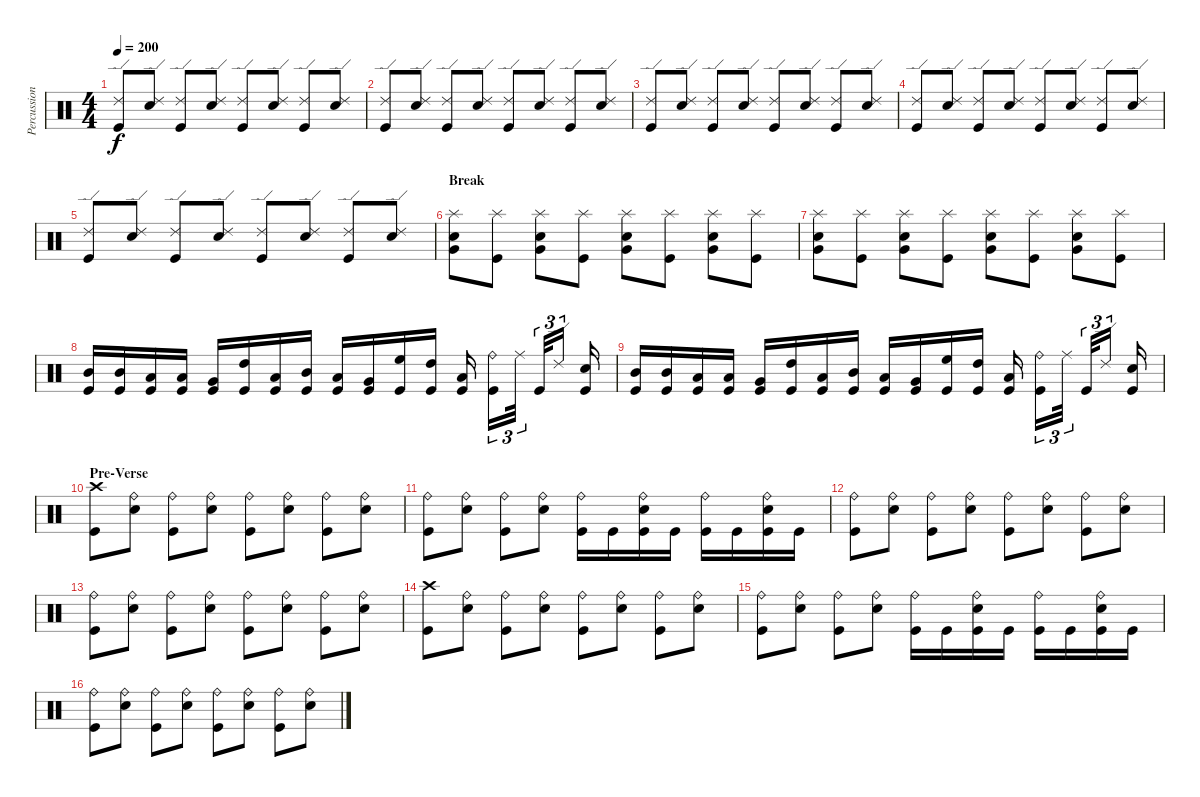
\track ("Percussion" "Percussion") {instrument percussion}
\staff {score}
\articulation defaults
\ts (4 4)
\tempo 200
\clef neutral
\ks c
("Ride (edge) 2" "Kick (hit)").8{dy f} ("Ride (edge) 2" "Electric Snare (hit)").8 ("Ride (edge) 2" "Kick (hit)").8 ("Ride (edge) 2" "Electric Snare (hit)").8 ("Ride (edge) 2" "Kick (hit)").8 ("Ride (edge) 2" "Electric Snare (hit)").8 ("Ride (edge) 2" "Kick (hit)").8 ("Ride (edge) 2" "Electric Snare (hit)").8 |
("Ride (edge) 2" "Kick (hit)").8 ("Ride (edge) 2" "Electric Snare (hit)").8 ("Ride (edge) 2" "Kick (hit)").8 ("Ride (edge) 2" "Electric Snare (hit)").8 ("Ride (edge) 2" "Kick (hit)").8 ("Ride (edge) 2" "Electric Snare (hit)").8 ("Ride (edge) 2" "Kick (hit)").8 ("Ride (edge) 2" "Electric Snare (hit)").8 |
("Ride (edge) 2" "Kick (hit)").8 ("Ride (edge) 2" "Electric Snare (hit)").8 ("Ride (edge) 2" "Kick (hit)").8 ("Ride (edge) 2" "Electric Snare (hit)").8 ("Ride (edge) 2" "Kick (hit)").8 ("Ride (edge) 2" "Electric Snare (hit)").8 ("Ride (edge) 2" "Kick (hit)").8 ("Ride (edge) 2" "Electric Snare (hit)").8 |
("Ride (edge) 2" "Kick (hit)").8 ("Ride (edge) 2" "Electric Snare (hit)").8 ("Ride (edge) 2" "Kick (hit)").8 ("Ride (edge) 2" "Electric Snare (hit)").8 ("Ride (edge) 2" "Kick (hit)").8 ("Ride (edge) 2" "Electric Snare (hit)").8 ("Ride (edge) 2" "Kick (hit)").8 ("Ride (edge) 2" "Electric Snare (hit)").8 |
("Ride (edge) 2" "Kick (hit)").8 ("Ride (edge) 2" "Electric Snare (hit)").8 ("Ride (edge) 2" "Kick (hit)").8 ("Ride (edge) 2" "Electric Snare (hit)").8 ("Ride (edge) 2" "Kick (hit)").8 ("Ride (edge) 2" "Electric Snare (hit)").8 ("Ride (edge) 2" "Kick (hit)").8 ("Ride (edge) 2" "Electric Snare (hit)").8 |
\section ("" "Break")
("Very Low Tom (hit)" "Splash (hit)" "Electric Snare (hit)").8 ("Splash (hit)" "Kick (hit)").8 ("Very Low Tom (hit)" "Splash (hit)" "Electric Snare (hit)").8 ("Splash (hit)" "Kick (hit)").8 ("Very Low Tom (hit)" "Splash (hit)" "Electric Snare (hit)").8 ("Splash (hit)" "Kick (hit)").8 ("Very Low Tom (hit)" "Splash (hit)" "Electric Snare (hit)").8 ("Splash (hit)" "Kick (hit)").8 |
("Very Low Tom (hit)" "Splash (hit)" "Electric Snare (hit)").8 ("Splash (hit)" "Kick (hit)").8 ("Very Low Tom (hit)" "Splash (hit)" "Electric Snare (hit)").8 ("Splash (hit)" "Kick (hit)").8 ("Very Low Tom (hit)" "Splash (hit)" "Electric Snare (hit)").8 ("Splash (hit)" "Kick (hit)").8 ("Very Low Tom (hit)" "Splash (hit)" "Electric Snare (hit)").8 ("Splash (hit)" "Kick (hit)").8 |
("Mid Tom (hit)" "Kick (hit)").16 ("Mid Tom (hit)" "Kick (hit)").16 ("Low Tom (hit)" "Kick (hit)").16 ("Low Tom (hit)" "Kick (hit)").16 ("Very Low Tom (hit)" "Kick (hit)").16 ("High Tom (hit)" "Kick (hit)").16 ("Low Tom (hit)" "Kick (hit)").16 ("Mid Tom (hit)" "Kick (hit)").16 ("Low Tom (hit)" "Kick (hit)").16 ("Very Low Tom (hit)" "Kick (hit)").16 ("High Floor Tom (hit)" "Kick (hit)").16 ("High Tom (hit)" "Kick (hit)").16 ("Low Tom (hit)" "Kick (hit)").16 ("Ride (bell)" "Kick (hit)").16{tu (3 2)} "Ride (middle)".32{tu (3 2)} "Kick (hit)".32{tu (3 2)} "Ride (edge) 2".16{tu (3 2)} ("Electric Snare (hit)" "Kick (hit)").16 |
("Mid Tom (hit)" "Kick (hit)").16 ("Mid Tom (hit)" "Kick (hit)").16 ("Low Tom (hit)" "Kick (hit)").16 ("Low Tom (hit)" "Kick (hit)").16 ("Very Low Tom (hit)" "Kick (hit)").16 ("High Tom (hit)" "Kick (hit)").16 ("Low Tom (hit)" "Kick (hit)").16 ("Mid Tom (hit)" "Kick (hit)").16 ("Low Tom (hit)" "Kick (hit)").16 ("Very Low Tom (hit)" "Kick (hit)").16 ("High Floor Tom (hit)" "Kick (hit)").16 ("High Tom (hit)" "Kick (hit)").16 ("Low Tom (hit)" "Kick (hit)").16 ("Ride (bell)" "Kick (hit)").16{tu (3 2)} "Ride (middle)".32{tu (3 2)} "Kick (hit)".32{tu (3 2)} "Ride (edge) 2".16{tu (3 2)} ("Electric Snare (hit)" "Kick (hit)").16 |
\section ("" "Pre-Verse")
("Crash high (hit)" "Kick (hit)").8 ("Ride (bell)" "Electric Snare (hit)").8 ("Ride (bell)" "Kick (hit)").8 ("Ride (bell)" "Electric Snare (hit)").8 ("Ride (bell)" "Kick (hit)").8 ("Ride (bell)" "Electric Snare (hit)").8 ("Ride (bell)" "Kick (hit)").8 ("Ride (bell)" "Electric Snare (hit)").8 |
("Ride (bell)" "Kick (hit)").8 ("Ride (bell)" "Electric Snare (hit)").8 ("Ride (bell)" "Kick (hit)").8 ("Ride (bell)" "Electric Snare (hit)").8 ("Ride (bell)" "Kick (hit)").16 "Kick (hit)".16 ("Ride (bell)" "Electric Snare (hit)" "Kick (hit)").16 "Kick (hit)".16 ("Ride (bell)" "Kick (hit)").16 "Kick (hit)".16 ("Ride (bell)" "Electric Snare (hit)" "Kick (hit)").16 "Kick (hit)".16 |
("Ride (bell)" "Kick (hit)").8 ("Ride (bell)" "Electric Snare (hit)").8 ("Ride (bell)" "Kick (hit)").8 ("Ride (bell)" "Electric Snare (hit)").8 ("Ride (bell)" "Kick (hit)").8 ("Ride (bell)" "Electric Snare (hit)").8 ("Ride (bell)" "Kick (hit)").8 ("Ride (bell)" "Electric Snare (hit)").8 |
("Ride (bell)" "Kick (hit)").8 ("Ride (bell)" "Electric Snare (hit)").8 ("Ride (bell)" "Kick (hit)").8 ("Ride (bell)" "Electric Snare (hit)").8 ("Ride (bell)" "Kick (hit)").8 ("Ride (bell)" "Electric Snare (hit)").8 ("Ride (bell)" "Kick (hit)").8 ("Ride (bell)" "Electric Snare (hit)").8 |
("Crash high (hit)" "Kick (hit)").8 ("Ride (bell)" "Electric Snare (hit)").8 ("Ride (bell)" "Kick (hit)").8 ("Ride (bell)" "Electric Snare (hit)").8 ("Ride (bell)" "Kick (hit)").8 ("Ride (bell)" "Electric Snare (hit)").8 ("Ride (bell)" "Kick (hit)").8 ("Ride (bell)" "Electric Snare (hit)").8 |
("Ride (bell)" "Kick (hit)").8 ("Ride (bell)" "Electric Snare (hit)").8 ("Ride (bell)" "Kick (hit)").8 ("Ride (bell)" "Electric Snare (hit)").8 ("Ride (bell)" "Kick (hit)").16 "Kick (hit)".16 ("Ride (bell)" "Electric Snare (hit)" "Kick (hit)").16 "Kick (hit)".16 ("Ride (bell)" "Kick (hit)").16 "Kick (hit)".16 ("Ride (bell)" "Electric Snare (hit)" "Kick (hit)").16 "Kick (hit)".16 |
("Ride (bell)" "Kick (hit)").8 ("Ride (bell)" "Electric Snare (hit)").8 ("Ride (bell)" "Kick (hit)").8 ("Ride (bell)" "Electric Snare (hit)").8 ("Ride (bell)" "Kick (hit)").8 ("Ride (bell)" "Electric Snare (hit)").8 ("Ride (bell)" "Kick (hit)").8 ("Ride (bell)" "Electric Snare (hit)").8
